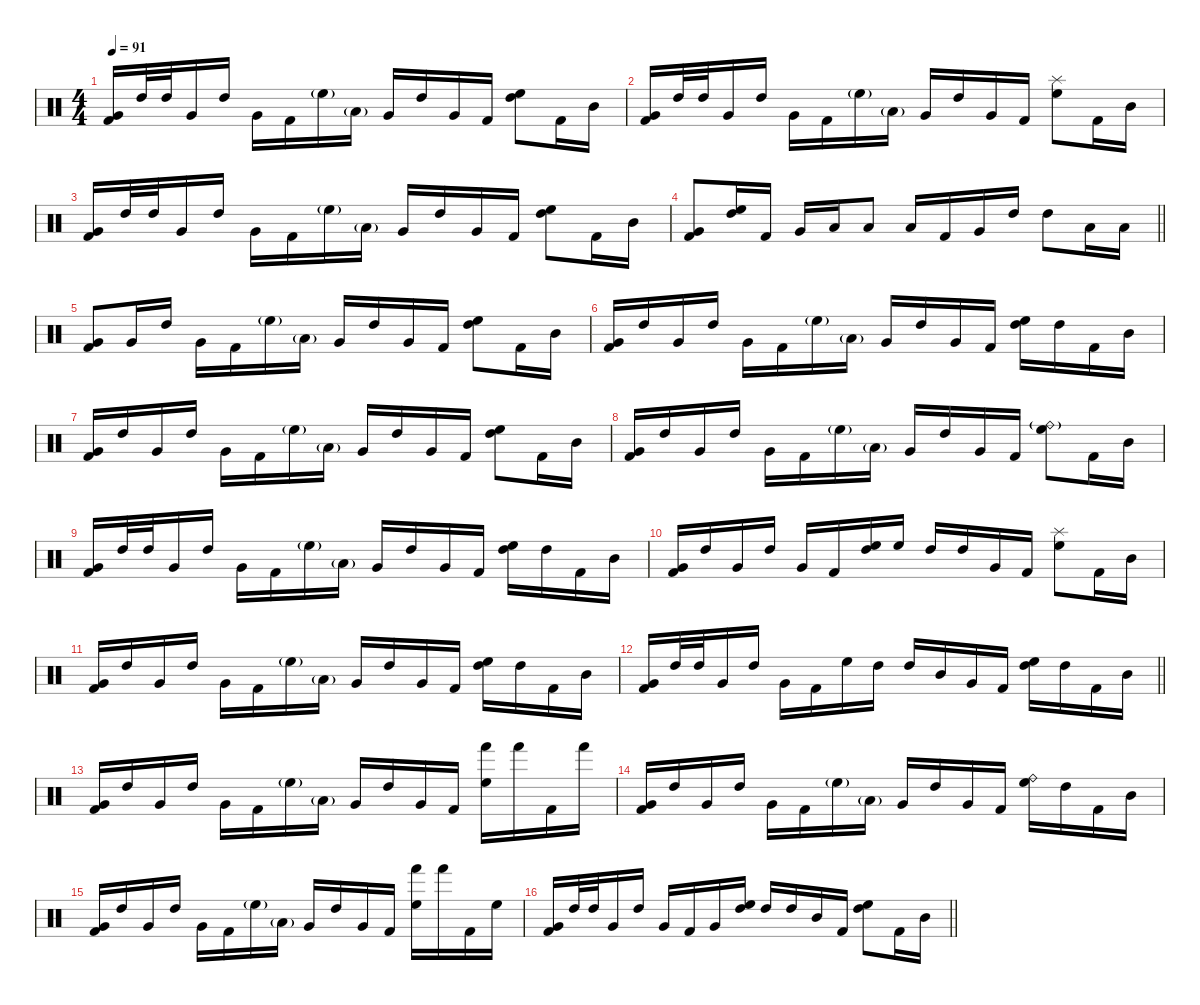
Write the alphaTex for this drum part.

\defaultSystemsLayout 4
\hideDynamics
\bracketExtendMode nobrackets
\singleTrackTrackNamePolicy hidden
\multiTrackTrackNamePolicy hidden
\otherSystemsTrackNameOrientation horizontal
\track ("Drums" "drm.") {instrument percussion}
\staff {score}
\articulation defaults
\ts (4 4)
\tempo 91
\clef neutral
\ks c
("Very Low Tom (hit)" "Kick (hit) 2").16{dy f beam Up} "High Tom (hit)".32{beam Up} "High Tom (hit)".32{beam Up} "Very Low Tom (hit)".16{beam Up} "High Tom (hit)".16{beam Up} "Very Low Tom (hit)".16{beam Down} "Kick (hit) 2".16{beam Down} "High Floor Tom (hit)"{g}.16{dy ff beam Down} "Low Floor Tom (hit)"{g}.16{beam Down} "Very Low Tom (hit)".16{dy f beam Up} "High Tom (hit)".16{beam Up} "Very Low Tom (hit)".16{beam Up} "Kick (hit) 2".16{beam Up} ("High Floor Tom (hit)" "High Tom (hit)").8{beam Down} "Kick (hit) 2".16{beam Down} "Mid Tom (hit)".16{beam Down} |
("Very Low Tom (hit)" "Kick (hit) 2").16{beam Up} "High Tom (hit)".32{beam Up} "High Tom (hit)".32{beam Up} "Very Low Tom (hit)".16{beam Up} "High Tom (hit)".16{beam Up} "Very Low Tom (hit)".16{beam Down} "Kick (hit) 2".16{beam Down} "High Floor Tom (hit)"{g}.16{dy ff beam Down} "Low Floor Tom (hit)"{g}.16{beam Down} "Very Low Tom (hit)".16{dy f beam Up} "High Tom (hit)".16{beam Up} "Very Low Tom (hit)".16{beam Up} "Kick (hit) 2".16{beam Up} ("Splash (hit)" "High Floor Tom (hit)").8{beam Down} "Kick (hit) 2".16{beam Down} "Mid Tom (hit)".16{beam Down} |
("Very Low Tom (hit)" "Kick (hit) 2").16{beam Up} "High Tom (hit)".32{beam Up} "High Tom (hit)".32{beam Up} "Very Low Tom (hit)".16{beam Up} "High Tom (hit)".16{beam Up} "Very Low Tom (hit)".16{beam Down} "Kick (hit) 2".16{beam Down} "High Floor Tom (hit)"{g}.16{dy ff beam Down} "Low Floor Tom (hit)"{g}.16{beam Down} "Very Low Tom (hit)".16{dy f beam Up} "High Tom (hit)".16{beam Up} "Very Low Tom (hit)".16{beam Up} "Kick (hit) 2".16{beam Up} ("High Floor Tom (hit)" "High Tom (hit)").8{beam Down} "Kick (hit) 2".16{beam Down} "Mid Tom (hit)".16{beam Down} |
\barLineRight lightlight
("Very Low Tom (hit)" "Kick (hit) 2").8{beam Up} ("High Floor Tom (hit)" "High Tom (hit)").16{beam Up} "Kick (hit) 2".16{beam Up} "Very Low Tom (hit)".16{beam Up} "Low Floor Tom (hit)".16{beam Up} "Low Floor Tom (hit)".8{beam Up} "Low Tom (hit)".16{beam Up} "Kick (hit) 2".16{beam Up} "Very Low Tom (hit)".16{beam Up} "High Tom (hit)".16{beam Up} "High Tom (hit)".8{beam Down} "Low Tom (hit)".16{beam Down} "Low Tom (hit)".16{beam Down} |
\section ("" "")
("Very Low Tom (hit)" "Kick (hit) 2").8{beam Up} "Very Low Tom (hit)".16{beam Up} "High Tom (hit)".16{beam Up} "Very Low Tom (hit)".16{beam Down} "Kick (hit) 2".16{beam Down} "High Floor Tom (hit)"{g}.16{dy ff beam Down} "Low Floor Tom (hit)"{g}.16{beam Down} "Very Low Tom (hit)".16{dy f beam Up} "High Tom (hit)".16{beam Up} "Very Low Tom (hit)".16{beam Up} "Kick (hit) 2".16{beam Up} ("High Floor Tom (hit)" "High Tom (hit)").8{beam Down} "Kick (hit) 2".16{beam Down} "Mid Tom (hit)".16{beam Down} |
("Very Low Tom (hit)" "Kick (hit) 2").16{beam Up} "High Tom (hit)".16{beam Up} "Very Low Tom (hit)".16{beam Up} "High Tom (hit)".16{beam Up} "Very Low Tom (hit)".16{beam Down} "Kick (hit) 2".16{beam Down} "High Floor Tom (hit)"{g}.16{dy ff beam Down} "Low Floor Tom (hit)"{g}.16{beam Down} "Very Low Tom (hit)".16{dy f beam Up} "High Tom (hit)".16{beam Up} "Very Low Tom (hit)".16{beam Up} "Kick (hit) 2".16{beam Up} ("High Floor Tom (hit)" "High Tom (hit)").16{beam Down} "High Tom (hit)".16{beam Down} "Kick (hit) 2".16{beam Down} "Mid Tom (hit)".16{beam Down} |
("Very Low Tom (hit)" "Kick (hit) 2").16{beam Up} "High Tom (hit)".16{beam Up} "Very Low Tom (hit)".16{beam Up} "High Tom (hit)".16{beam Up} "Very Low Tom (hit)".16{beam Down} "Kick (hit) 2".16{beam Down} "High Floor Tom (hit)"{g}.16{dy ff beam Down} "Low Floor Tom (hit)"{g}.16{beam Down} "Very Low Tom (hit)".16{dy f beam Up} "High Tom (hit)".16{beam Up} "Very Low Tom (hit)".16{beam Up} "Kick (hit) 2".16{beam Up} ("High Floor Tom (hit)" "High Tom (hit)").8{beam Down} "Kick (hit) 2".16{beam Down} "Mid Tom (hit)".16{beam Down} |
("Very Low Tom (hit)" "Kick (hit) 2").16{beam Up} "High Tom (hit)".16{beam Up} "Very Low Tom (hit)".16{beam Up} "High Tom (hit)".16{beam Up} "Very Low Tom (hit)".16{beam Down} "Kick (hit) 2".16{beam Down} "High Floor Tom (hit)"{g}.16{dy ff beam Down} "Low Floor Tom (hit)"{g}.16{beam Down} "Very Low Tom (hit)".16{dy f beam Up} "High Tom (hit)".16{beam Up} "Very Low Tom (hit)".16{beam Up} "Kick (hit) 2".16{beam Up} ("Ride (bell)"{g} "High Floor Tom (hit)").8{beam Down} "Kick (hit) 2".16{beam Down} "Mid Tom (hit)".16{beam Down} |
("Very Low Tom (hit)" "Kick (hit) 2").16{beam Up} "High Tom (hit)".32{beam Up} "High Tom (hit)".32{beam Up} "Very Low Tom (hit)".16{beam Up} "High Tom (hit)".16{beam Up} "Very Low Tom (hit)".16{beam Down} "Kick (hit) 2".16{beam Down} "High Floor Tom (hit)"{g}.16{dy ff beam Down} "Low Floor Tom (hit)"{g}.16{beam Down} "Very Low Tom (hit)".16{dy f beam Up} "High Tom (hit)".16{beam Up} "Very Low Tom (hit)".16{beam Up} "Kick (hit) 2".16{beam Up} ("High Floor Tom (hit)" "High Tom (hit)").16{beam Down} "High Tom (hit)".16{beam Down} "Kick (hit) 2".16{beam Down} "Mid Tom (hit)".16{beam Down} |
("Very Low Tom (hit)" "Kick (hit) 2").16{beam Up} "High Tom (hit)".16{beam Up} "Very Low Tom (hit)".16{beam Up} "High Tom (hit)".16{beam Up} "Very Low Tom (hit)".16{beam Up} "Kick (hit) 2".16{beam Up} ("High Floor Tom (hit)" "High Tom (hit)").16{beam Up} "High Floor Tom (hit)".16{beam Up} "High Tom (hit)".16{beam Up} "High Tom (hit)".16{beam Up} "Very Low Tom (hit)".16{beam Up} "Kick (hit) 2".16{beam Up} ("Splash (hit)" "High Floor Tom (hit)").8{beam Down} "Kick (hit) 2".16{beam Down} "Mid Tom (hit)".16{beam Down} |
("Very Low Tom (hit)" "Kick (hit) 2").16{beam Up} "High Tom (hit)".16{beam Up} "Very Low Tom (hit)".16{beam Up} "High Tom (hit)".16{beam Up} "Very Low Tom (hit)".16{beam Down} "Kick (hit) 2".16{beam Down} "High Floor Tom (hit)"{g}.16{dy ff beam Down} "Low Floor Tom (hit)"{g}.16{beam Down} "Very Low Tom (hit)".16{dy f beam Up} "High Tom (hit)".16{beam Up} "Very Low Tom (hit)".16{beam Up} "Kick (hit) 2".16{beam Up} ("High Floor Tom (hit)" "High Tom (hit)").16{beam Down} "High Tom (hit)".16{beam Down} "Kick (hit) 2".16{beam Down} "Mid Tom (hit)".16{beam Down} |
\barLineRight lightlight
("Very Low Tom (hit)" "Kick (hit) 2").16{beam Up} "High Tom (hit)".32{beam Up} "High Tom (hit)".32{beam Up} "Very Low Tom (hit)".16{beam Up} "High Tom (hit)".16{beam Up} "Very Low Tom (hit)".16{beam Down} "Kick (hit) 2".16{beam Down} "High Floor Tom (hit)".16{beam Down} "High Tom (hit)".16{beam Down} "High Tom (hit)".16{beam Up} "Mid Tom (hit)".16{beam Up} "Very Low Tom (hit)".16{beam Up} "Kick (hit) 2".16{beam Up} ("High Floor Tom (hit)" "High Tom (hit)").16{beam Down} "High Tom (hit)".16{beam Down} "Kick (hit) 2".16{beam Down} "Mid Tom (hit)".16{beam Down} |
\section ("" "")
("Very Low Tom (hit)" "Kick (hit) 2").16{beam Up} "High Tom (hit)".16{beam Up} "Very Low Tom (hit)".16{beam Up} "High Tom (hit)".16{beam Up} "Very Low Tom (hit)".16{beam Down} "Kick (hit) 2".16{beam Down} "High Floor Tom (hit)"{g}.16{dy ff beam Down} "Low Floor Tom (hit)"{g}.16{beam Down} "Very Low Tom (hit)".16{dy f beam Up} "High Tom (hit)".16{beam Up} "Very Low Tom (hit)".16{beam Up} "Kick (hit) 2".16{beam Up} ("Hand (hit)" "High Floor Tom (hit)").16{dy mf beam Down} "Hand (hit)".16{beam Down} "Kick (hit) 2".16{dy f beam Down} "Hand (hit)".16{dy mf beam Down} |
("Very Low Tom (hit)" "Kick (hit) 2").16{dy f beam Up} "High Tom (hit)".16{beam Up} "Very Low Tom (hit)".16{beam Up} "High Tom (hit)".16{beam Up} "Very Low Tom (hit)".16{beam Down} "Kick (hit) 2".16{beam Down} "High Floor Tom (hit)"{g}.16{dy ff beam Down} "Low Floor Tom (hit)"{g}.16{beam Down} "Very Low Tom (hit)".16{dy f beam Up} "High Tom (hit)".16{beam Up} "Very Low Tom (hit)".16{beam Up} "Kick (hit) 2".16{beam Up} ("Ride (bell)" "High Floor Tom (hit)").16{dy mf beam Down} "High Tom (hit)".16{dy f beam Down} "Kick (hit) 2".16{beam Down} "Mid Tom (hit)".16{beam Down} |
("Very Low Tom (hit)" "Kick (hit) 2").16{beam Up} "High Tom (hit)".16{beam Up} "Very Low Tom (hit)".16{beam Up} "High Tom (hit)".16{beam Up} "Very Low Tom (hit)".16{beam Down} "Kick (hit) 2".16{beam Down} "High Floor Tom (hit)"{g}.16{dy ff beam Down} "Low Floor Tom (hit)"{g}.16{beam Down} "Very Low Tom (hit)".16{dy f beam Up} "High Tom (hit)".16{beam Up} "Very Low Tom (hit)".16{beam Up} "Kick (hit) 2".16{beam Up} ("Hand (hit)" "High Floor Tom (hit)").16{dy mf beam Down} "Hand (hit)".16{beam Down} "Kick (hit) 2".16{dy f beam Down} "High Floor Tom (hit)".16{dy mf beam Down} |
\barLineRight lightlight
("Very Low Tom (hit)" "Kick (hit) 2").16{dy f beam Up} "High Tom (hit)".32{beam Up} "High Tom (hit)".32{beam Up} "Very Low Tom (hit)".16{beam Up} "High Tom (hit)".16{beam Up} "Very Low Tom (hit)".16{beam Up} "Kick (hit) 2".16{beam Up} "Very Low Tom (hit)".16{beam Up} ("High Floor Tom (hit)" "High Tom (hit)").16{beam Up} "High Tom (hit)".16{beam Up} "High Tom (hit)".16{beam Up} "Mid Tom (hit)".16{beam Up} "Kick (hit) 2".16{beam Up} ("High Floor Tom (hit)" "High Tom (hit)").8{beam Down} "Kick (hit) 2".16{beam Down} "Mid Tom (hit)".16{beam Down}
